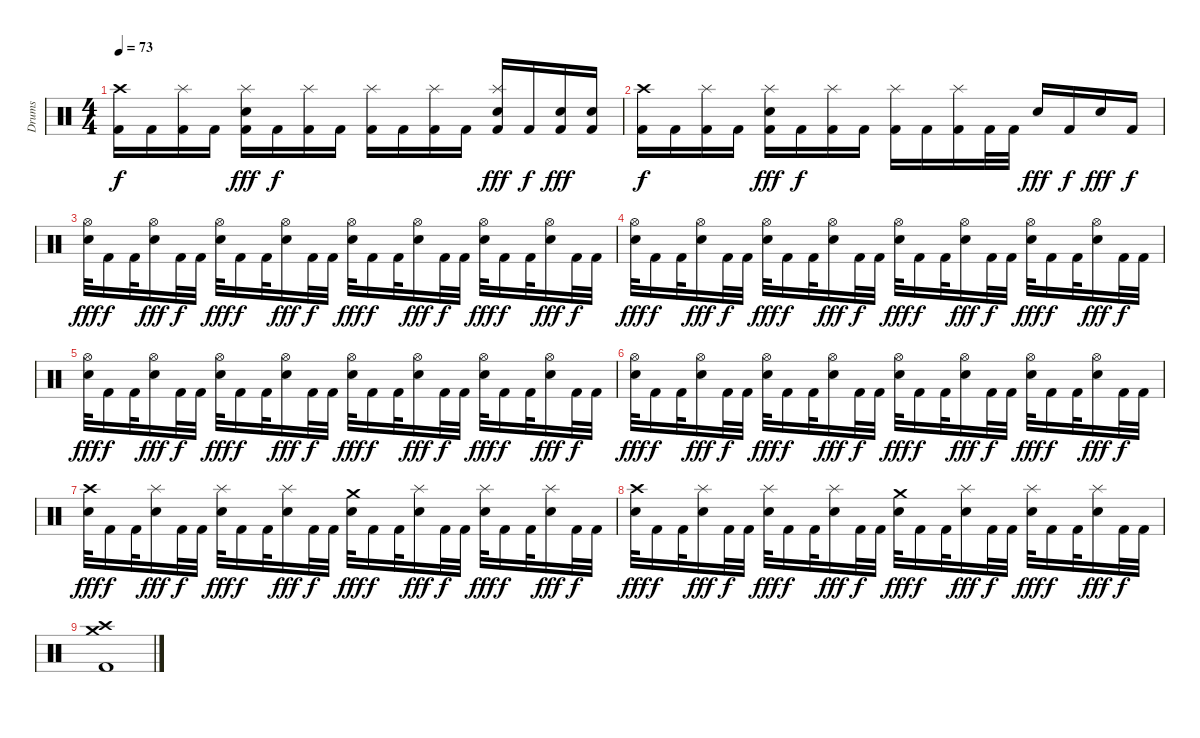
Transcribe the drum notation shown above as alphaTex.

\track ("Drums" "Drums") {instrument percussion}
\staff {score}
\articulation defaults
\ts (4 4)
\tempo 73
\clef neutral
\ks c
("Crash high (hit)" "Kick (hit) 2").16{dy f} "Kick (hit) 2".16 ("Splash (hit)" "Kick (hit) 2").16 "Kick (hit) 2".16 ("Splash (hit)" "Snare (hit) 2" "Kick (hit) 2").16{dy fff} "Kick (hit) 2".16{dy f} ("Splash (hit)" "Kick (hit) 2").16 "Kick (hit) 2".16 ("Splash (hit)" "Kick (hit) 2").16 "Kick (hit) 2".16 ("Splash (hit)" "Kick (hit) 2").16 "Kick (hit) 2".16 ("Splash (hit)" "Snare (hit) 2" "Kick (hit) 2").16{dy fff} "Kick (hit) 2".16{dy f} ("Snare (hit) 2" "Kick (hit) 2").16{dy fff} ("Snare (hit) 2" "Kick (hit) 2").16 |
("Crash high (hit)" "Kick (hit) 2").16{dy f} "Kick (hit) 2".16 ("Splash (hit)" "Kick (hit) 2").16 "Kick (hit) 2".16 ("Splash (hit)" "Snare (hit) 2" "Kick (hit) 2").16{dy fff} "Kick (hit) 2".16{dy f} ("Splash (hit)" "Kick (hit) 2").16 "Kick (hit) 2".16 ("Splash (hit)" "Kick (hit) 2").16 "Kick (hit) 2".16 ("Splash (hit)" "Kick (hit) 2").16 "Kick (hit) 2".32 "Kick (hit) 2".32 "Snare (hit) 2".16{dy fff} "Kick (hit) 2".16{dy f} "Snare (hit) 2".16{dy fff} "Kick (hit) 2".16{dy f} |
("Hi-Hat (open)" "Snare (hit) 2").32{dy fff} "Kick (hit) 2".16{dy f} "Kick (hit) 2".32 ("Hi-Hat (open)" "Snare (hit) 2").16{dy fff} "Kick (hit) 2".32{dy f} "Kick (hit) 2".32 ("Hi-Hat (open)" "Snare (hit) 2").32{dy fff} "Kick (hit) 2".16{dy f} "Kick (hit) 2".32 ("Hi-Hat (open)" "Snare (hit) 2").16{dy fff} "Kick (hit) 2".32{dy f} "Kick (hit) 2".32 ("Hi-Hat (open)" "Snare (hit) 2").32{dy fff} "Kick (hit) 2".16{dy f} "Kick (hit) 2".32 ("Hi-Hat (open)" "Snare (hit) 2").16{dy fff} "Kick (hit) 2".32{dy f} "Kick (hit) 2".32 ("Hi-Hat (open)" "Snare (hit) 2").32{dy fff} "Kick (hit) 2".16{dy f} "Kick (hit) 2".32 ("Hi-Hat (open)" "Snare (hit) 2").16{dy fff} "Kick (hit) 2".32{dy f} "Kick (hit) 2".32 |
("Hi-Hat (open)" "Snare (hit) 2").32{dy fff} "Kick (hit) 2".16{dy f} "Kick (hit) 2".32 ("Hi-Hat (open)" "Snare (hit) 2").16{dy fff} "Kick (hit) 2".32{dy f} "Kick (hit) 2".32 ("Hi-Hat (open)" "Snare (hit) 2").32{dy fff} "Kick (hit) 2".16{dy f} "Kick (hit) 2".32 ("Hi-Hat (open)" "Snare (hit) 2").16{dy fff} "Kick (hit) 2".32{dy f} "Kick (hit) 2".32 ("Hi-Hat (open)" "Snare (hit) 2").32{dy fff} "Kick (hit) 2".16{dy f} "Kick (hit) 2".32 ("Hi-Hat (open)" "Snare (hit) 2").16{dy fff} "Kick (hit) 2".32{dy f} "Kick (hit) 2".32 ("Hi-Hat (open)" "Snare (hit) 2").32{dy fff} "Kick (hit) 2".16{dy f} "Kick (hit) 2".32 ("Hi-Hat (open)" "Snare (hit) 2").16{dy fff} "Kick (hit) 2".32{dy f} "Kick (hit) 2".32 |
("Hi-Hat (open)" "Snare (hit) 2").32{dy fff} "Kick (hit) 2".16{dy f} "Kick (hit) 2".32 ("Hi-Hat (open)" "Snare (hit) 2").16{dy fff} "Kick (hit) 2".32{dy f} "Kick (hit) 2".32 ("Hi-Hat (open)" "Snare (hit) 2").32{dy fff} "Kick (hit) 2".16{dy f} "Kick (hit) 2".32 ("Hi-Hat (open)" "Snare (hit) 2").16{dy fff} "Kick (hit) 2".32{dy f} "Kick (hit) 2".32 ("Hi-Hat (open)" "Snare (hit) 2").32{dy fff} "Kick (hit) 2".16{dy f} "Kick (hit) 2".32 ("Hi-Hat (open)" "Snare (hit) 2").16{dy fff} "Kick (hit) 2".32{dy f} "Kick (hit) 2".32 ("Hi-Hat (open)" "Snare (hit) 2").32{dy fff} "Kick (hit) 2".16{dy f} "Kick (hit) 2".32 ("Hi-Hat (open)" "Snare (hit) 2").16{dy fff} "Kick (hit) 2".32{dy f} "Kick (hit) 2".32 |
("Hi-Hat (open)" "Snare (hit) 2").32{dy fff} "Kick (hit) 2".16{dy f} "Kick (hit) 2".32 ("Hi-Hat (open)" "Snare (hit) 2").16{dy fff} "Kick (hit) 2".32{dy f} "Kick (hit) 2".32 ("Hi-Hat (open)" "Snare (hit) 2").32{dy fff} "Kick (hit) 2".16{dy f} "Kick (hit) 2".32 ("Hi-Hat (open)" "Snare (hit) 2").16{dy fff} "Kick (hit) 2".32{dy f} "Kick (hit) 2".32 ("Hi-Hat (open)" "Snare (hit) 2").32{dy fff} "Kick (hit) 2".16{dy f} "Kick (hit) 2".32 ("Hi-Hat (open)" "Snare (hit) 2").16{dy fff} "Kick (hit) 2".32{dy f} "Kick (hit) 2".32 ("Hi-Hat (open)" "Snare (hit) 2").32{dy fff} "Kick (hit) 2".16{dy f} "Kick (hit) 2".32 ("Hi-Hat (open)" "Snare (hit) 2").16{dy fff} "Kick (hit) 2".32{dy f} "Kick (hit) 2".32 |
("Crash high (hit)" "Snare (hit) 2").32{dy fff} "Kick (hit) 2".16{dy f} "Kick (hit) 2".32 ("Splash (hit)" "Snare (hit) 2").16{dy fff} "Kick (hit) 2".32{dy f} "Kick (hit) 2".32 ("Splash (hit)" "Snare (hit) 2").32{dy fff} "Kick (hit) 2".16{dy f} "Kick (hit) 2".32 ("Splash (hit)" "Snare (hit) 2").16{dy fff} "Kick (hit) 2".32{dy f} "Kick (hit) 2".32 ("Crash medium (hit)" "Snare (hit) 2").32{dy fff} "Kick (hit) 2".16{dy f} "Kick (hit) 2".32 ("Splash (hit)" "Snare (hit) 2").16{dy fff} "Kick (hit) 2".32{dy f} "Kick (hit) 2".32 ("Splash (hit)" "Snare (hit) 2").32{dy fff} "Kick (hit) 2".16{dy f} "Kick (hit) 2".32 ("Splash (hit)" "Snare (hit) 2").16{dy fff} "Kick (hit) 2".32{dy f} "Kick (hit) 2".32 |
("Crash high (hit)" "Snare (hit) 2").32{dy fff} "Kick (hit) 2".16{dy f} "Kick (hit) 2".32 ("Splash (hit)" "Snare (hit) 2").16{dy fff} "Kick (hit) 2".32{dy f} "Kick (hit) 2".32 ("Splash (hit)" "Snare (hit) 2").32{dy fff} "Kick (hit) 2".16{dy f} "Kick (hit) 2".32 ("Splash (hit)" "Snare (hit) 2").16{dy fff} "Kick (hit) 2".32{dy f} "Kick (hit) 2".32 ("Crash medium (hit)" "Snare (hit) 2").32{dy fff} "Kick (hit) 2".16{dy f} "Kick (hit) 2".32 ("Splash (hit)" "Snare (hit) 2").16{dy fff} "Kick (hit) 2".32{dy f} "Kick (hit) 2".32 ("Splash (hit)" "Snare (hit) 2").32{dy fff} "Kick (hit) 2".16{dy f} "Kick (hit) 2".32 ("Splash (hit)" "Snare (hit) 2").16{dy fff} "Kick (hit) 2".32{dy f} "Kick (hit) 2".32 |
("Crash high (hit)" "Crash medium (hit)" "Kick (hit) 2").1
